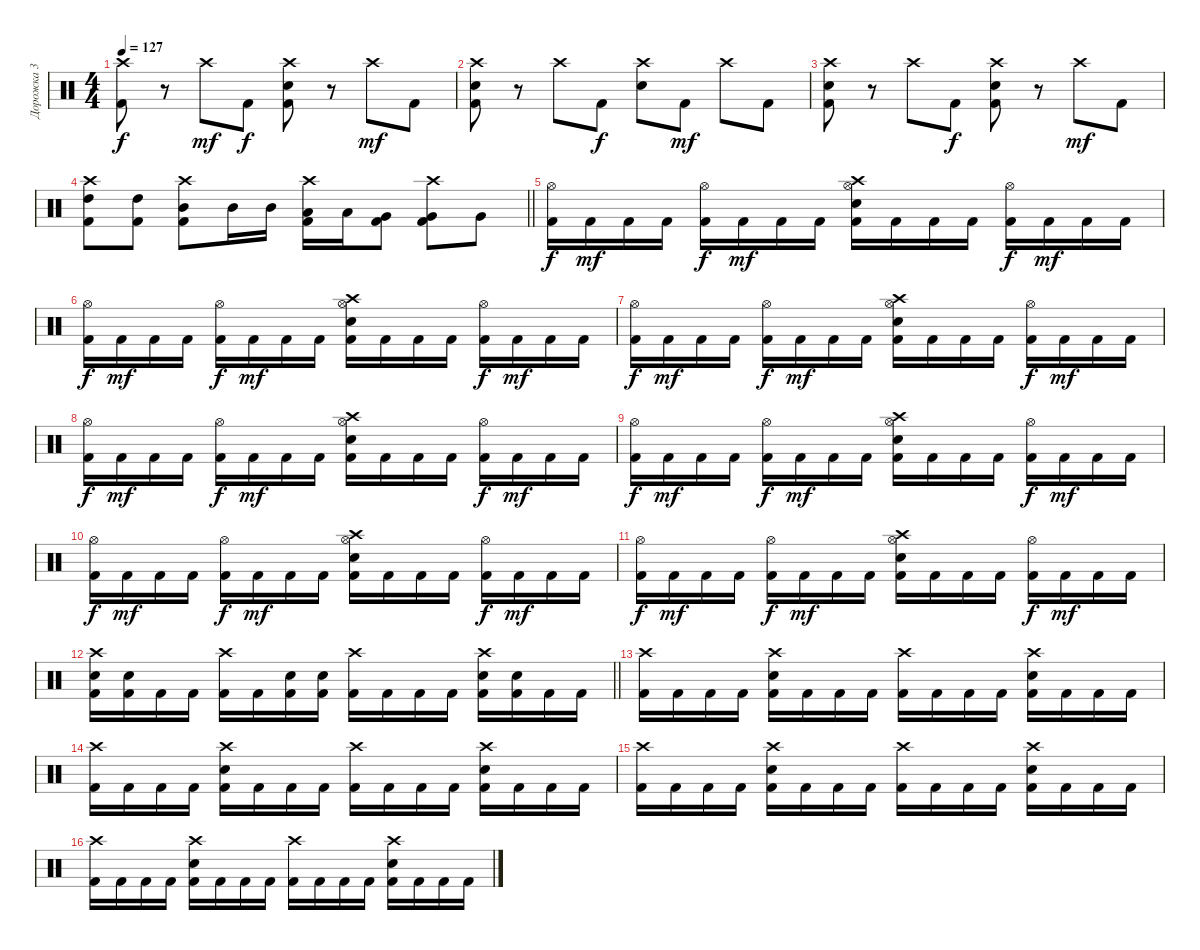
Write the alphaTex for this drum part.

\track ("Дорожка 3" "Дорожка 3") {instrument percussion}
\staff {score}
\articulation defaults
\ts (4 4)
\tempo 127
\clef neutral
\ks c
("Crash high (hit)" "Kick (hit) 2").8{dy f} r.8 "Crash high (hit)".8{dy mf} "Kick (hit) 2".8{dy f} ("Crash high (hit)" "Electric Snare (hit)" "Kick (hit) 2").8 r.8 "Crash high (hit)".8{dy mf} "Kick (hit) 2".8 |
("Crash high (hit)" "Electric Snare (hit)" "Kick (hit) 2").8 r.8 "Crash high (hit)".8 "Kick (hit) 2".8{dy f} ("Crash high (hit)" "Electric Snare (hit)").8 "Kick (hit) 2".8{dy mf} "Crash high (hit)".8 "Kick (hit) 2".8 |
("Crash high (hit)" "Electric Snare (hit)" "Kick (hit) 2").8 r.8 "Crash high (hit)".8 "Kick (hit) 2".8{dy f} ("Crash high (hit)" "Electric Snare (hit)" "Kick (hit) 2").8 r.8 "Crash high (hit)".8{dy mf} "Kick (hit) 2".8 |
\barLineRight lightlight
("Crash high (hit)" "High Tom (hit)" "Kick (hit) 2").8 ("High Tom (hit)" "Kick (hit) 2").8 ("Crash high (hit)" "Mid Tom (hit)" "Kick (hit) 2").8 "Mid Tom (hit)".16 "Mid Tom (hit)".16 ("Crash high (hit)" "Low Tom (hit)" "Kick (hit) 2").16 "Low Tom (hit)".16 ("Very Low Tom (hit)" "Kick (hit) 2").8 ("Crash high (hit)" "Very Low Tom (hit)" "Kick (hit) 2").8 "Very Low Tom (hit)".8 |
("Hi-Hat (open)" "Kick (hit) 2").16{dy f} "Kick (hit) 2".16{dy mf} "Kick (hit) 2".16 "Kick (hit) 2".16 ("Kick (hit) 2" "Hi-Hat (open)").16{dy f} "Kick (hit) 2".16{dy mf} "Kick (hit) 2".16 "Kick (hit) 2".16 ("Electric Snare (hit)" "Crash high (hit)" "Hi-Hat (open)" "Kick (hit) 2").16 "Kick (hit) 2".16 "Kick (hit) 2".16 "Kick (hit) 2".16 ("Kick (hit) 2" "Hi-Hat (open)").16{dy f} "Kick (hit) 2".16{dy mf} "Kick (hit) 2".16 "Kick (hit) 2".16 |
("Hi-Hat (open)" "Kick (hit) 2").16{dy f} "Kick (hit) 2".16{dy mf} "Kick (hit) 2".16 "Kick (hit) 2".16 ("Kick (hit) 2" "Hi-Hat (open)").16{dy f} "Kick (hit) 2".16{dy mf} "Kick (hit) 2".16 "Kick (hit) 2".16 ("Electric Snare (hit)" "Crash high (hit)" "Hi-Hat (open)" "Kick (hit) 2").16 "Kick (hit) 2".16 "Kick (hit) 2".16 "Kick (hit) 2".16 ("Kick (hit) 2" "Hi-Hat (open)").16{dy f} "Kick (hit) 2".16{dy mf} "Kick (hit) 2".16 "Kick (hit) 2".16 |
("Hi-Hat (open)" "Kick (hit) 2").16{dy f} "Kick (hit) 2".16{dy mf} "Kick (hit) 2".16 "Kick (hit) 2".16 ("Kick (hit) 2" "Hi-Hat (open)").16{dy f} "Kick (hit) 2".16{dy mf} "Kick (hit) 2".16 "Kick (hit) 2".16 ("Electric Snare (hit)" "Crash high (hit)" "Hi-Hat (open)" "Kick (hit) 2").16 "Kick (hit) 2".16 "Kick (hit) 2".16 "Kick (hit) 2".16 ("Kick (hit) 2" "Hi-Hat (open)").16{dy f} "Kick (hit) 2".16{dy mf} "Kick (hit) 2".16 "Kick (hit) 2".16 |
("Hi-Hat (open)" "Kick (hit) 2").16{dy f} "Kick (hit) 2".16{dy mf} "Kick (hit) 2".16 "Kick (hit) 2".16 ("Kick (hit) 2" "Hi-Hat (open)").16{dy f} "Kick (hit) 2".16{dy mf} "Kick (hit) 2".16 "Kick (hit) 2".16 ("Electric Snare (hit)" "Crash high (hit)" "Hi-Hat (open)" "Kick (hit) 2").16 "Kick (hit) 2".16 "Kick (hit) 2".16 "Kick (hit) 2".16 ("Kick (hit) 2" "Hi-Hat (open)").16{dy f} "Kick (hit) 2".16{dy mf} "Kick (hit) 2".16 "Kick (hit) 2".16 |
("Hi-Hat (open)" "Kick (hit) 2").16{dy f} "Kick (hit) 2".16{dy mf} "Kick (hit) 2".16 "Kick (hit) 2".16 ("Kick (hit) 2" "Hi-Hat (open)").16{dy f} "Kick (hit) 2".16{dy mf} "Kick (hit) 2".16 "Kick (hit) 2".16 ("Electric Snare (hit)" "Crash high (hit)" "Hi-Hat (open)" "Kick (hit) 2").16 "Kick (hit) 2".16 "Kick (hit) 2".16 "Kick (hit) 2".16 ("Kick (hit) 2" "Hi-Hat (open)").16{dy f} "Kick (hit) 2".16{dy mf} "Kick (hit) 2".16 "Kick (hit) 2".16 |
("Hi-Hat (open)" "Kick (hit) 2").16{dy f} "Kick (hit) 2".16{dy mf} "Kick (hit) 2".16 "Kick (hit) 2".16 ("Kick (hit) 2" "Hi-Hat (open)").16{dy f} "Kick (hit) 2".16{dy mf} "Kick (hit) 2".16 "Kick (hit) 2".16 ("Electric Snare (hit)" "Crash high (hit)" "Hi-Hat (open)" "Kick (hit) 2").16 "Kick (hit) 2".16 "Kick (hit) 2".16 "Kick (hit) 2".16 ("Kick (hit) 2" "Hi-Hat (open)").16{dy f} "Kick (hit) 2".16{dy mf} "Kick (hit) 2".16 "Kick (hit) 2".16 |
("Hi-Hat (open)" "Kick (hit) 2").16{dy f} "Kick (hit) 2".16{dy mf} "Kick (hit) 2".16 "Kick (hit) 2".16 ("Kick (hit) 2" "Hi-Hat (open)").16{dy f} "Kick (hit) 2".16{dy mf} "Kick (hit) 2".16 "Kick (hit) 2".16 ("Electric Snare (hit)" "Crash high (hit)" "Hi-Hat (open)" "Kick (hit) 2").16 "Kick (hit) 2".16 "Kick (hit) 2".16 "Kick (hit) 2".16 ("Kick (hit) 2" "Hi-Hat (open)").16{dy f} "Kick (hit) 2".16{dy mf} "Kick (hit) 2".16 "Kick (hit) 2".16 |
\barLineRight lightlight
("Crash high (hit)" "Electric Snare (hit)" "Kick (hit) 2").16 ("Electric Snare (hit)" "Kick (hit) 2").16 "Kick (hit) 2".16 "Kick (hit) 2".16 ("Crash high (hit)" "Kick (hit) 2").16 "Kick (hit) 2".16 ("Electric Snare (hit)" "Kick (hit) 2").16 ("Electric Snare (hit)" "Kick (hit) 2").16 ("Crash high (hit)" "Kick (hit) 2").16 "Kick (hit) 2".16 "Kick (hit) 2".16 "Kick (hit) 2".16 ("Crash high (hit)" "Electric Snare (hit)" "Kick (hit) 2").16 ("Electric Snare (hit)" "Kick (hit) 2").16 "Kick (hit) 2".16 "Kick (hit) 2".16 |
("Crash high (hit)" "Kick (hit) 2").16 "Kick (hit) 2".16 "Kick (hit) 2".16 "Kick (hit) 2".16 ("Crash high (hit)" "Electric Snare (hit)" "Kick (hit) 2").16 "Kick (hit) 2".16 "Kick (hit) 2".16 "Kick (hit) 2".16 ("Crash high (hit)" "Kick (hit) 2").16 "Kick (hit) 2".16 "Kick (hit) 2".16 "Kick (hit) 2".16 ("Crash high (hit)" "Electric Snare (hit)" "Kick (hit) 2").16 "Kick (hit) 2".16 "Kick (hit) 2".16 "Kick (hit) 2".16 |
("Crash high (hit)" "Kick (hit) 2").16 "Kick (hit) 2".16 "Kick (hit) 2".16 "Kick (hit) 2".16 ("Crash high (hit)" "Electric Snare (hit)" "Kick (hit) 2").16 "Kick (hit) 2".16 "Kick (hit) 2".16 "Kick (hit) 2".16 ("Crash high (hit)" "Kick (hit) 2").16 "Kick (hit) 2".16 "Kick (hit) 2".16 "Kick (hit) 2".16 ("Crash high (hit)" "Electric Snare (hit)" "Kick (hit) 2").16 "Kick (hit) 2".16 "Kick (hit) 2".16 "Kick (hit) 2".16 |
("Crash high (hit)" "Kick (hit) 2").16 "Kick (hit) 2".16 "Kick (hit) 2".16 "Kick (hit) 2".16 ("Crash high (hit)" "Electric Snare (hit)" "Kick (hit) 2").16 "Kick (hit) 2".16 "Kick (hit) 2".16 "Kick (hit) 2".16 ("Crash high (hit)" "Kick (hit) 2").16 "Kick (hit) 2".16 "Kick (hit) 2".16 "Kick (hit) 2".16 ("Crash high (hit)" "Electric Snare (hit)" "Kick (hit) 2").16 "Kick (hit) 2".16 "Kick (hit) 2".16 "Kick (hit) 2".16 |
("Crash high (hit)" "Kick (hit) 2").16 "Kick (hit) 2".16 "Kick (hit) 2".16 "Kick (hit) 2".16 ("Crash high (hit)" "Electric Snare (hit)" "Kick (hit) 2").16 "Kick (hit) 2".16 "Kick (hit) 2".16 "Kick (hit) 2".16 ("Crash high (hit)" "Kick (hit) 2").16 "Kick (hit) 2".16 "Kick (hit) 2".16 "Kick (hit) 2".16 ("Crash high (hit)" "Electric Snare (hit)" "Kick (hit) 2").16 "Kick (hit) 2".16 "Kick (hit) 2".16 "Kick (hit) 2".16
